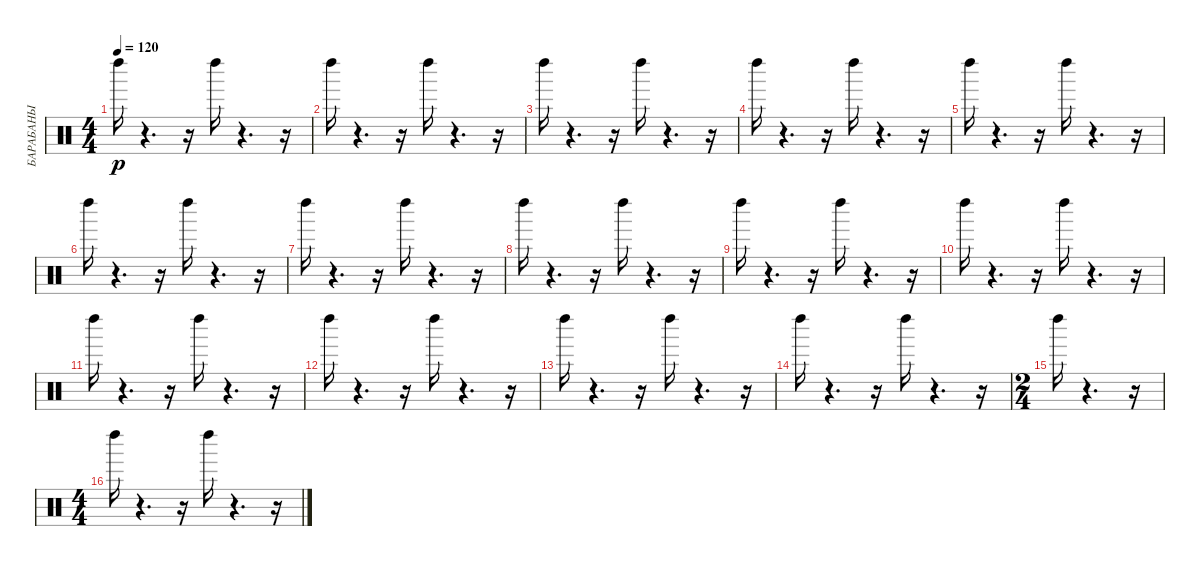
\track ("БАРАБАНЫ" "БАРАБАНЫ") {instrument percussion}
\staff {score}
\articulation defaults
\ts (4 4)
\tempo 120
\clef neutral
\ks c "Left Maraca (hit)".16{dy p}
r.4{d} r.16 "Left Maraca (hit)".16 r.4{d} r.16 |
"Left Maraca (hit)".16 r.4{d} r.16 "Left Maraca (hit)".16 r.4{d} r.16 |
"Left Maraca (hit)".16 r.4{d} r.16 "Left Maraca (hit)".16 r.4{d} r.16 |
"Left Maraca (hit)".16 r.4{d} r.16 "Left Maraca (hit)".16 r.4{d} r.16 |
"Left Maraca (hit)".16 r.4{d} r.16 "Left Maraca (hit)".16 r.4{d} r.16 |
"Left Maraca (hit)".16 r.4{d} r.16 "Left Maraca (hit)".16 r.4{d} r.16 |
"Left Maraca (hit)".16 r.4{d} r.16 "Left Maraca (hit)".16 r.4{d} r.16 |
"Left Maraca (hit)".16 r.4{d} r.16 "Left Maraca (hit)".16 r.4{d} r.16 |
"Left Maraca (hit)".16 r.4{d} r.16 "Left Maraca (hit)".16 r.4{d} r.16 |
"Left Maraca (hit)".16 r.4{d} r.16 "Left Maraca (hit)".16 r.4{d} r.16 |
"Left Maraca (hit)".16 r.4{d} r.16 "Left Maraca (hit)".16 r.4{d} r.16 |
"Left Maraca (hit)".16 r.4{d} r.16 "Left Maraca (hit)".16 r.4{d} r.16 |
"Left Maraca (hit)".16 r.4{d} r.16 "Left Maraca (hit)".16 r.4{d} r.16 |
"Left Maraca (hit)".16 r.4{d} r.16 "Left Maraca (hit)".16 r.4{d} r.16 |
\ts (2 4)
"Left Maraca (hit)".16 r.4{d} r.16 |
\ts (4 4)
"Left Maraca (hit)".16 r.4{d} r.16 "Left Maraca (hit)".16 r.4{d} r.16
